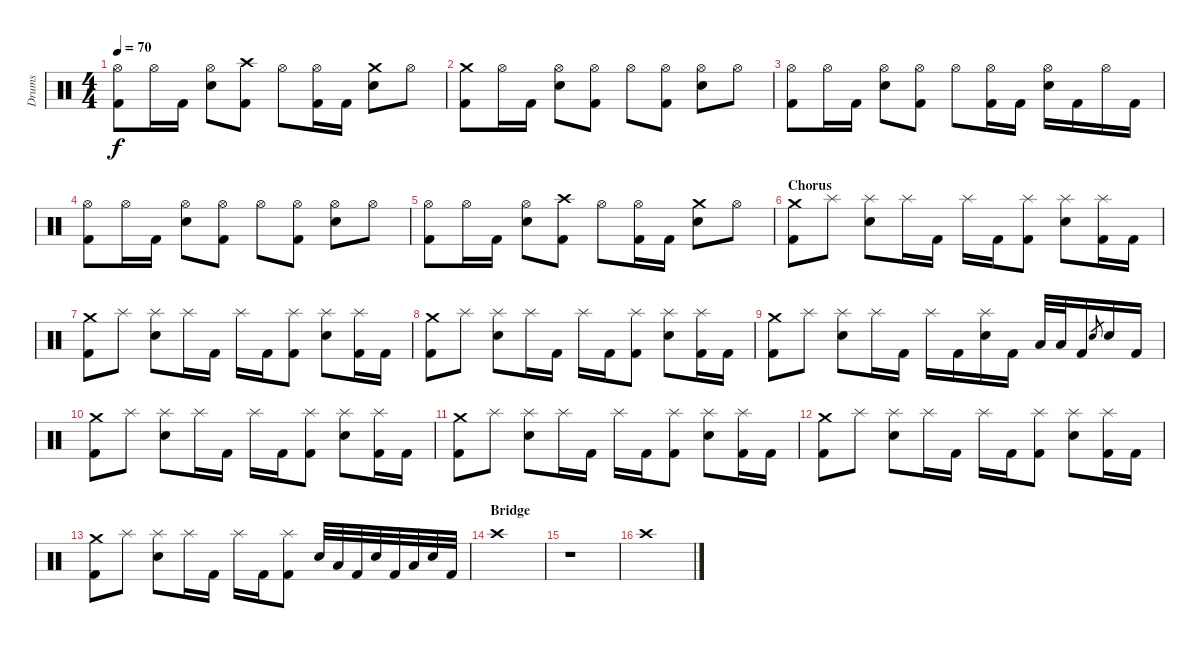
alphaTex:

\track ("Drums" "Drums") {instrument percussion}
\staff {score}
\articulation defaults
\ts (4 4)
\tempo 70
\clef neutral
\ks c
("Hi-Hat (open)" "Kick (hit) 2").8{dy f} "Hi-Hat (open)".16 "Kick (hit) 2".16 ("Hi-Hat (open)" "Electric Snare (hit)").8 ("Crash high (hit)" "Kick (hit) 2").8 "Hi-Hat (open)".8 ("Hi-Hat (open)" "Kick (hit) 2").16 "Kick (hit) 2".16 ("Crash medium (hit)" "Electric Snare (hit)").8 "Hi-Hat (open)".8 |
("Crash medium (hit)" "Kick (hit) 2").8 "Hi-Hat (open)".16 "Kick (hit) 2".16 ("Hi-Hat (open)" "Electric Snare (hit)").8 ("Hi-Hat (open)" "Kick (hit) 2").8 "Hi-Hat (open)".8 ("Hi-Hat (open)" "Kick (hit) 2").8 ("Hi-Hat (open)" "Electric Snare (hit)").8 "Hi-Hat (open)".8 |
("Hi-Hat (open)" "Kick (hit) 2").8 "Hi-Hat (open)".16 "Kick (hit) 2".16 ("Hi-Hat (open)" "Electric Snare (hit)").8 ("Hi-Hat (open)" "Kick (hit) 2").8 "Hi-Hat (open)".8 ("Hi-Hat (open)" "Kick (hit) 2").16 "Kick (hit) 2".16 ("Hi-Hat (open)" "Electric Snare (hit)").16 "Kick (hit) 2".16 "Hi-Hat (open)".16 "Kick (hit) 2".16 |
("Hi-Hat (open)" "Kick (hit) 2").8 "Hi-Hat (open)".16 "Kick (hit) 2".16 ("Hi-Hat (open)" "Electric Snare (hit)").8 ("Hi-Hat (open)" "Kick (hit) 2").8 "Hi-Hat (open)".8 ("Hi-Hat (open)" "Kick (hit) 2").8 ("Hi-Hat (open)" "Electric Snare (hit)").8 "Hi-Hat (open)".8 |
("Hi-Hat (open)" "Kick (hit) 2").8 "Hi-Hat (open)".16 "Kick (hit) 2".16 ("Hi-Hat (open)" "Electric Snare (hit)").8 ("Crash high (hit)" "Kick (hit) 2").8 "Hi-Hat (open)".8 ("Hi-Hat (open)" "Kick (hit) 2").16 "Kick (hit) 2".16 ("Crash medium (hit)" "Electric Snare (hit)").8 "Hi-Hat (open)".8 |
\section ("" "Chorus")
("Crash medium (hit)" "Kick (hit) 2").8 "Splash (hit)".8 ("Splash (hit)" "Electric Snare (hit)").8 "Splash (hit)".16 "Kick (hit) 2".16 "Splash (hit)".16 "Kick (hit) 2".16 ("Splash (hit)" "Kick (hit) 2").8 ("Splash (hit)" "Electric Snare (hit)").8 ("Splash (hit)" "Kick (hit) 2").16 "Kick (hit) 2".16 |
("Crash medium (hit)" "Kick (hit) 2").8 "Splash (hit)".8 ("Splash (hit)" "Electric Snare (hit)").8 "Splash (hit)".16 "Kick (hit) 2".16 "Splash (hit)".16 "Kick (hit) 2".16 ("Splash (hit)" "Kick (hit) 2").8 ("Splash (hit)" "Electric Snare (hit)").8 ("Splash (hit)" "Kick (hit) 2").16 "Kick (hit) 2".16 |
("Crash medium (hit)" "Kick (hit) 2").8 "Splash (hit)".8 ("Splash (hit)" "Electric Snare (hit)").8 "Splash (hit)".16 "Kick (hit) 2".16 "Splash (hit)".16 "Kick (hit) 2".16 ("Splash (hit)" "Kick (hit) 2").8 ("Splash (hit)" "Electric Snare (hit)").8 ("Splash (hit)" "Kick (hit) 2").16 "Kick (hit) 2".16 |
("Crash medium (hit)" "Kick (hit) 2").8 "Splash (hit)".8 ("Splash (hit)" "Electric Snare (hit)").8 "Splash (hit)".16 "Kick (hit) 2".16 "Splash (hit)".16 "Kick (hit) 2".16 ("Splash (hit)" "Electric Snare (hit)").16 "Kick (hit) 2".16 "Low Tom (hit)".32 "Low Tom (hit)".32 "Kick (hit) 2".16 "Electric Snare (hit)".8{gr} "Electric Snare (hit)".16 "Kick (hit) 2".16 |
("Crash medium (hit)" "Kick (hit) 2").8 "Splash (hit)".8 ("Splash (hit)" "Electric Snare (hit)").8 "Splash (hit)".16 "Kick (hit) 2".16 "Splash (hit)".16 "Kick (hit) 2".16 ("Splash (hit)" "Kick (hit) 2").8 ("Splash (hit)" "Electric Snare (hit)").8 ("Splash (hit)" "Kick (hit) 2").16 "Kick (hit) 2".16 |
("Crash medium (hit)" "Kick (hit) 2").8 "Splash (hit)".8 ("Splash (hit)" "Electric Snare (hit)").8 "Splash (hit)".16 "Kick (hit) 2".16 "Splash (hit)".16 "Kick (hit) 2".16 ("Splash (hit)" "Kick (hit) 2").8 ("Splash (hit)" "Electric Snare (hit)").8 ("Splash (hit)" "Kick (hit) 2").16 "Kick (hit) 2".16 |
("Crash medium (hit)" "Kick (hit) 2").8 "Splash (hit)".8 ("Splash (hit)" "Electric Snare (hit)").8 "Splash (hit)".16 "Kick (hit) 2".16 "Splash (hit)".16 "Kick (hit) 2".16 ("Splash (hit)" "Kick (hit) 2").8 ("Splash (hit)" "Electric Snare (hit)").8 ("Splash (hit)" "Kick (hit) 2").16 "Kick (hit) 2".16 |
("Crash medium (hit)" "Kick (hit) 2").8 "Splash (hit)".8 ("Splash (hit)" "Electric Snare (hit)").8 "Splash (hit)".16 "Kick (hit) 2".16 "Splash (hit)".16 "Kick (hit) 2".16 ("Splash (hit)" "Kick (hit) 2").8 "Electric Snare (hit)".32 "Low Tom (hit)".32 "Kick (hit) 2".32 "Electric Snare (hit)".32 "Kick (hit) 2".32 "Low Tom (hit)".32 "Electric Snare (hit)".32 "Kick (hit) 2".32 |
\section ("" "Bridge")
"Crash high (hit)".1 |
r.1 |
"Crash high (hit)".1
